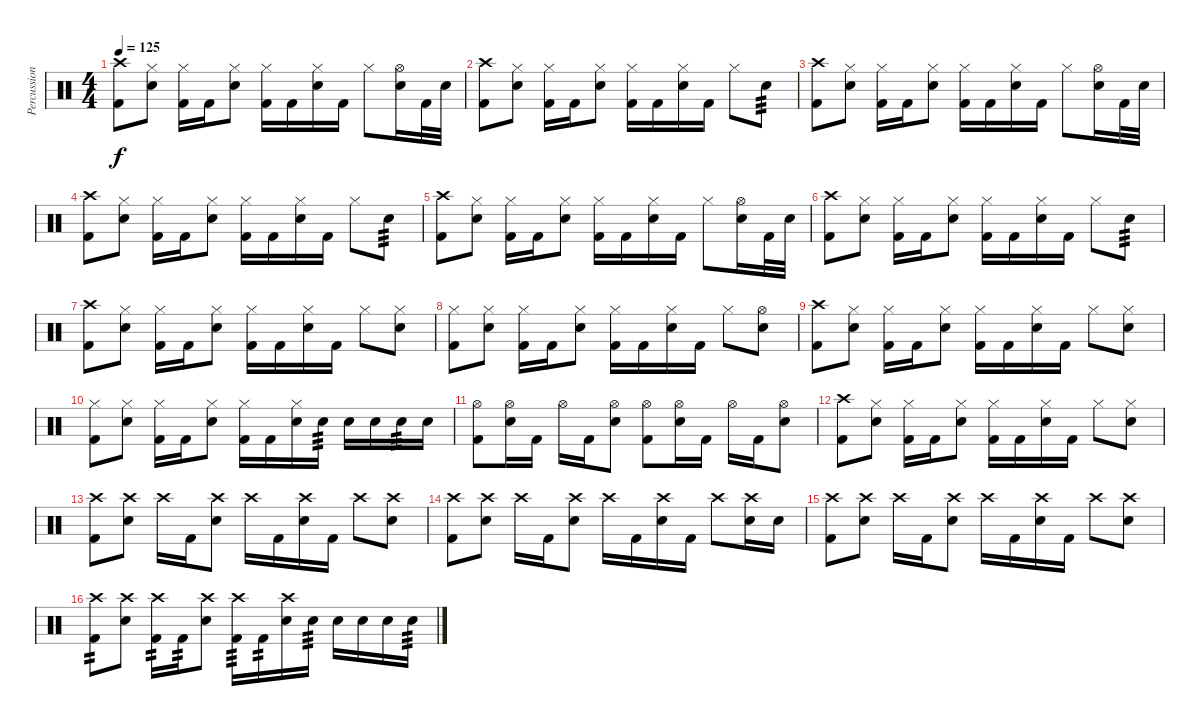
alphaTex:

\track ("Percussion" "Percussion") {instrument percussion}
\staff {score}
\articulation defaults
\ts (4 4)
\tempo 125
\clef neutral
\ks c
("Crash high (hit)" "Kick (hit) 2").8{dy f} ("Hi-Hat (closed)" "Electric Snare (hit)").8 ("Hi-Hat (closed)" "Kick (hit) 2").16 "Kick (hit) 2".16 ("Hi-Hat (closed)" "Electric Snare (hit)").8 ("Hi-Hat (closed)" "Kick (hit) 2").16 "Kick (hit) 2".16 ("Hi-Hat (closed)" "Electric Snare (hit)").16 "Kick (hit) 2".16 "Hi-Hat (closed)".8 ("Hi-Hat (open)" "Electric Snare (hit)").16 "Kick (hit) 2".32 "Electric Snare (hit)".32 |
("Crash high (hit)" "Kick (hit) 2").8 ("Hi-Hat (closed)" "Electric Snare (hit)").8 ("Hi-Hat (closed)" "Kick (hit) 2").16 "Kick (hit) 2".16 ("Hi-Hat (closed)" "Electric Snare (hit)").8 ("Hi-Hat (closed)" "Kick (hit) 2").16 "Kick (hit) 2".16 ("Hi-Hat (closed)" "Electric Snare (hit)").16 "Kick (hit) 2".16 "Hi-Hat (closed)".8 "Electric Snare (hit)".8{tp 3} |
("Crash high (hit)" "Kick (hit) 2").8 ("Hi-Hat (closed)" "Electric Snare (hit)").8 ("Hi-Hat (closed)" "Kick (hit) 2").16 "Kick (hit) 2".16 ("Hi-Hat (closed)" "Electric Snare (hit)").8 ("Hi-Hat (closed)" "Kick (hit) 2").16 "Kick (hit) 2".16 ("Hi-Hat (closed)" "Electric Snare (hit)").16 "Kick (hit) 2".16 "Hi-Hat (closed)".8 ("Hi-Hat (open)" "Electric Snare (hit)").16 "Kick (hit) 2".32 "Electric Snare (hit)".32 |
("Crash high (hit)" "Kick (hit) 2").8 ("Hi-Hat (closed)" "Electric Snare (hit)").8 ("Hi-Hat (closed)" "Kick (hit) 2").16 "Kick (hit) 2".16 ("Hi-Hat (closed)" "Electric Snare (hit)").8 ("Hi-Hat (closed)" "Kick (hit) 2").16 "Kick (hit) 2".16 ("Hi-Hat (closed)" "Electric Snare (hit)").16 "Kick (hit) 2".16 "Hi-Hat (closed)".8 "Electric Snare (hit)".8{tp 3} |
("Crash high (hit)" "Kick (hit) 2").8 ("Hi-Hat (closed)" "Electric Snare (hit)").8 ("Hi-Hat (closed)" "Kick (hit) 2").16 "Kick (hit) 2".16 ("Hi-Hat (closed)" "Electric Snare (hit)").8 ("Hi-Hat (closed)" "Kick (hit) 2").16 "Kick (hit) 2".16 ("Hi-Hat (closed)" "Electric Snare (hit)").16 "Kick (hit) 2".16 "Hi-Hat (closed)".8 ("Hi-Hat (open)" "Electric Snare (hit)").16 "Kick (hit) 2".32 "Electric Snare (hit)".32 |
("Crash high (hit)" "Kick (hit) 2").8 ("Hi-Hat (closed)" "Electric Snare (hit)").8 ("Hi-Hat (closed)" "Kick (hit) 2").16 "Kick (hit) 2".16 ("Hi-Hat (closed)" "Electric Snare (hit)").8 ("Hi-Hat (closed)" "Kick (hit) 2").16 "Kick (hit) 2".16 ("Hi-Hat (closed)" "Electric Snare (hit)").16 "Kick (hit) 2".16 "Hi-Hat (closed)".8 "Electric Snare (hit)".8{tp 3} |
("Crash high (hit)" "Kick (hit) 2").8 ("Hi-Hat (closed)" "Electric Snare (hit)").8 ("Hi-Hat (closed)" "Kick (hit) 2").16 "Kick (hit) 2".16 ("Hi-Hat (closed)" "Electric Snare (hit)").8 ("Hi-Hat (closed)" "Kick (hit) 2").16 "Kick (hit) 2".16 ("Hi-Hat (closed)" "Electric Snare (hit)").16 "Kick (hit) 2".16 "Hi-Hat (closed)".8 ("Hi-Hat (closed)" "Electric Snare (hit)").8 |
("Hi-Hat (closed)" "Kick (hit) 2").8 ("Hi-Hat (closed)" "Electric Snare (hit)").8 ("Hi-Hat (closed)" "Kick (hit) 2").16 "Kick (hit) 2".16 ("Hi-Hat (closed)" "Electric Snare (hit)").8 ("Hi-Hat (closed)" "Kick (hit) 2").16 "Kick (hit) 2".16 ("Hi-Hat (closed)" "Electric Snare (hit)").16 "Kick (hit) 2".16 "Hi-Hat (closed)".8 ("Hi-Hat (open)" "Electric Snare (hit)").8 |
("Crash high (hit)" "Kick (hit) 2").8 ("Hi-Hat (closed)" "Electric Snare (hit)").8 ("Hi-Hat (closed)" "Kick (hit) 2").16 "Kick (hit) 2".16 ("Hi-Hat (closed)" "Electric Snare (hit)").8 ("Hi-Hat (closed)" "Kick (hit) 2").16 "Kick (hit) 2".16 ("Hi-Hat (closed)" "Electric Snare (hit)").16 "Kick (hit) 2".16 "Hi-Hat (closed)".8 ("Hi-Hat (closed)" "Electric Snare (hit)").8 |
("Hi-Hat (closed)" "Kick (hit) 2").8 ("Hi-Hat (closed)" "Electric Snare (hit)").8 ("Hi-Hat (closed)" "Kick (hit) 2").16 "Kick (hit) 2".16 ("Hi-Hat (closed)" "Electric Snare (hit)").8 ("Hi-Hat (closed)" "Kick (hit) 2").16 "Kick (hit) 2".16 ("Hi-Hat (closed)" "Electric Snare (hit)").16 "Electric Snare (hit)".16{tp 3} "Electric Snare (hit)".16 "Electric Snare (hit)".16 "Electric Snare (hit)".16{tp 3} "Electric Snare (hit)".16 |
("Hi-Hat (open)" "Kick (hit) 2").8 ("Hi-Hat (open)" "Electric Snare (hit)").16 "Kick (hit) 2".16 "Hi-Hat (open)".16 "Kick (hit) 2".16 ("Electric Snare (hit)" "Hi-Hat (open)").8 ("Hi-Hat (open)" "Kick (hit) 2").8 ("Hi-Hat (open)" "Electric Snare (hit)").16 "Kick (hit) 2".16 "Hi-Hat (open)".16 "Kick (hit) 2".16 ("Electric Snare (hit)" "Hi-Hat (open)").8 |
("Crash high (hit)" "Kick (hit) 2").8 ("Hi-Hat (closed)" "Electric Snare (hit)").8 ("Hi-Hat (closed)" "Kick (hit) 2").16 "Kick (hit) 2".16 ("Hi-Hat (closed)" "Electric Snare (hit)").8 ("Hi-Hat (closed)" "Kick (hit) 2").16 "Kick (hit) 2".16 ("Hi-Hat (closed)" "Electric Snare (hit)").16 "Kick (hit) 2".16 "Hi-Hat (closed)".8 ("Hi-Hat (closed)" "Electric Snare (hit)").8 |
("Crash high (hit)" "Kick (hit) 2").8 ("Crash high (hit)" "Electric Snare (hit)").8 "Crash high (hit)".16 "Kick (hit) 2".16 ("Crash high (hit)" "Electric Snare (hit)").8 "Crash high (hit)".16 "Kick (hit) 2".16 ("Crash high (hit)" "Electric Snare (hit)").16 "Kick (hit) 2".16 "Crash high (hit)".8 ("Crash high (hit)" "Electric Snare (hit)").8 |
("Crash high (hit)" "Kick (hit) 2").8 ("Crash high (hit)" "Electric Snare (hit)").8 "Crash high (hit)".16 "Kick (hit) 2".16 ("Crash high (hit)" "Electric Snare (hit)").8 "Crash high (hit)".16 "Kick (hit) 2".16 ("Crash high (hit)" "Electric Snare (hit)").16 "Kick (hit) 2".16 "Crash high (hit)".8 ("Crash high (hit)" "Electric Snare (hit)").16 "Electric Snare (hit)".16 |
("Crash high (hit)" "Kick (hit) 2").8 ("Crash high (hit)" "Electric Snare (hit)").8 "Crash high (hit)".16 "Kick (hit) 2".16 ("Crash high (hit)" "Electric Snare (hit)").8 "Crash high (hit)".16 "Kick (hit) 2".16 ("Crash high (hit)" "Electric Snare (hit)").16 "Kick (hit) 2".16 "Crash high (hit)".8 ("Crash high (hit)" "Electric Snare (hit)").8 |
("Crash high (hit)" "Kick (hit) 2").8{tp 2} ("Crash high (hit)" "Electric Snare (hit)").8 ("Crash high (hit)" "Kick (hit) 2").16{tp 2} "Kick (hit) 2".16{tp 2} ("Crash high (hit)" "Electric Snare (hit)").8 ("Crash high (hit)" "Kick (hit) 2").16{tp 3} "Kick (hit) 2".16{tp 2} ("Crash high (hit)" "Electric Snare (hit)").16 "Electric Snare (hit)".16{tp 3} "Electric Snare (hit)".16 "Electric Snare (hit)".16 "Electric Snare (hit)".16 "Electric Snare (hit)".16{tp 3}
